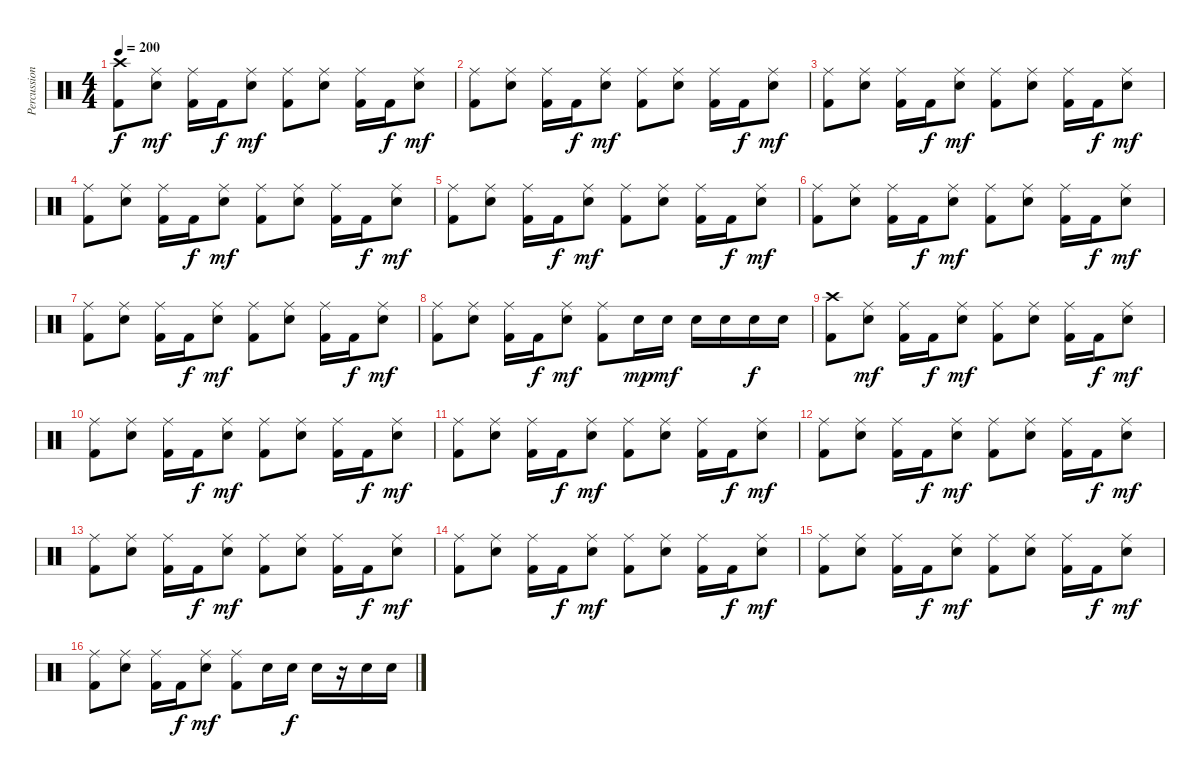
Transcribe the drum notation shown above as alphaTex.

\track ("Percussions" "Percussion") {instrument percussion}
\staff {score}
\articulation defaults
\ts (4 4)
\tempo 200
\clef neutral
\ks c
("Crash high (hit)" "Kick (hit) 2").8{dy f} ("Ride (middle)" "Snare (hit) 2").8{dy mf} ("Ride (middle)" "Kick (hit) 2").16 "Kick (hit) 2".16{dy f} ("Ride (middle)" "Snare (hit) 2").8{dy mf} ("Ride (middle)" "Kick (hit) 2").8 ("Ride (middle)" "Snare (hit) 2").8 ("Ride (middle)" "Kick (hit) 2").16 "Kick (hit) 2".16{dy f} ("Ride (middle)" "Snare (hit) 2").8{dy mf} |
("Ride (middle)" "Kick (hit) 2").8 ("Ride (middle)" "Snare (hit) 2").8 ("Ride (middle)" "Kick (hit) 2").16 "Kick (hit) 2".16{dy f} ("Ride (middle)" "Snare (hit) 2").8{dy mf} ("Ride (middle)" "Kick (hit) 2").8 ("Ride (middle)" "Snare (hit) 2").8 ("Ride (middle)" "Kick (hit) 2").16 "Kick (hit) 2".16{dy f} ("Ride (middle)" "Snare (hit) 2").8{dy mf} |
("Ride (middle)" "Kick (hit) 2").8 ("Ride (middle)" "Snare (hit) 2").8 ("Ride (middle)" "Kick (hit) 2").16 "Kick (hit) 2".16{dy f} ("Ride (middle)" "Snare (hit) 2").8{dy mf} ("Ride (middle)" "Kick (hit) 2").8 ("Ride (middle)" "Snare (hit) 2").8 ("Ride (middle)" "Kick (hit) 2").16 "Kick (hit) 2".16{dy f} ("Ride (middle)" "Snare (hit) 2").8{dy mf} |
("Ride (middle)" "Kick (hit) 2").8 ("Ride (middle)" "Snare (hit) 2").8 ("Ride (middle)" "Kick (hit) 2").16 "Kick (hit) 2".16{dy f} ("Ride (middle)" "Snare (hit) 2").8{dy mf} ("Ride (middle)" "Kick (hit) 2").8 ("Ride (middle)" "Snare (hit) 2").8 ("Ride (middle)" "Kick (hit) 2").16 "Kick (hit) 2".16{dy f} ("Ride (middle)" "Snare (hit) 2").8{dy mf} |
("Ride (middle)" "Kick (hit) 2").8 ("Ride (middle)" "Snare (hit) 2").8 ("Ride (middle)" "Kick (hit) 2").16 "Kick (hit) 2".16{dy f} ("Ride (middle)" "Snare (hit) 2").8{dy mf} ("Ride (middle)" "Kick (hit) 2").8 ("Ride (middle)" "Snare (hit) 2").8 ("Ride (middle)" "Kick (hit) 2").16 "Kick (hit) 2".16{dy f} ("Ride (middle)" "Snare (hit) 2").8{dy mf} |
("Ride (middle)" "Kick (hit) 2").8 ("Ride (middle)" "Snare (hit) 2").8 ("Ride (middle)" "Kick (hit) 2").16 "Kick (hit) 2".16{dy f} ("Ride (middle)" "Snare (hit) 2").8{dy mf} ("Ride (middle)" "Kick (hit) 2").8 ("Ride (middle)" "Snare (hit) 2").8 ("Ride (middle)" "Kick (hit) 2").16 "Kick (hit) 2".16{dy f} ("Ride (middle)" "Snare (hit) 2").8{dy mf} |
("Ride (middle)" "Kick (hit) 2").8 ("Ride (middle)" "Snare (hit) 2").8 ("Ride (middle)" "Kick (hit) 2").16 "Kick (hit) 2".16{dy f} ("Ride (middle)" "Snare (hit) 2").8{dy mf} ("Ride (middle)" "Kick (hit) 2").8 ("Ride (middle)" "Snare (hit) 2").8 ("Ride (middle)" "Kick (hit) 2").16 "Kick (hit) 2".16{dy f} ("Ride (middle)" "Snare (hit) 2").8{dy mf} |
("Ride (middle)" "Kick (hit) 2").8 ("Ride (middle)" "Snare (hit) 2").8 ("Ride (middle)" "Kick (hit) 2").16 "Kick (hit) 2".16{dy f} ("Ride (middle)" "Snare (hit) 2").8{dy mf} ("Ride (middle)" "Kick (hit) 2").8 "Snare (hit) 2".16{dy mp} "Snare (hit) 2".16{dy mf} "Snare (hit) 2".16 "Snare (hit) 2".16 "Snare (hit) 2".16{dy f} "Snare (hit) 2".16 |
("Crash high (hit)" "Kick (hit) 2").8 ("Ride (middle)" "Snare (hit) 2").8{dy mf} ("Ride (middle)" "Kick (hit) 2").16 "Kick (hit) 2".16{dy f} ("Ride (middle)" "Snare (hit) 2").8{dy mf} ("Ride (middle)" "Kick (hit) 2").8 ("Ride (middle)" "Snare (hit) 2").8 ("Ride (middle)" "Kick (hit) 2").16 "Kick (hit) 2".16{dy f} ("Ride (middle)" "Snare (hit) 2").8{dy mf} |
("Ride (middle)" "Kick (hit) 2").8 ("Ride (middle)" "Snare (hit) 2").8 ("Ride (middle)" "Kick (hit) 2").16 "Kick (hit) 2".16{dy f} ("Ride (middle)" "Snare (hit) 2").8{dy mf} ("Ride (middle)" "Kick (hit) 2").8 ("Ride (middle)" "Snare (hit) 2").8 ("Ride (middle)" "Kick (hit) 2").16 "Kick (hit) 2".16{dy f} ("Ride (middle)" "Snare (hit) 2").8{dy mf} |
("Ride (middle)" "Kick (hit) 2").8 ("Ride (middle)" "Snare (hit) 2").8 ("Ride (middle)" "Kick (hit) 2").16 "Kick (hit) 2".16{dy f} ("Ride (middle)" "Snare (hit) 2").8{dy mf} ("Ride (middle)" "Kick (hit) 2").8 ("Ride (middle)" "Snare (hit) 2").8 ("Ride (middle)" "Kick (hit) 2").16 "Kick (hit) 2".16{dy f} ("Ride (middle)" "Snare (hit) 2").8{dy mf} |
("Ride (middle)" "Kick (hit) 2").8 ("Ride (middle)" "Snare (hit) 2").8 ("Ride (middle)" "Kick (hit) 2").16 "Kick (hit) 2".16{dy f} ("Ride (middle)" "Snare (hit) 2").8{dy mf} ("Ride (middle)" "Kick (hit) 2").8 ("Ride (middle)" "Snare (hit) 2").8 ("Ride (middle)" "Kick (hit) 2").16 "Kick (hit) 2".16{dy f} ("Ride (middle)" "Snare (hit) 2").8{dy mf} |
("Ride (middle)" "Kick (hit) 2").8 ("Ride (middle)" "Snare (hit) 2").8 ("Ride (middle)" "Kick (hit) 2").16 "Kick (hit) 2".16{dy f} ("Ride (middle)" "Snare (hit) 2").8{dy mf} ("Ride (middle)" "Kick (hit) 2").8 ("Ride (middle)" "Snare (hit) 2").8 ("Ride (middle)" "Kick (hit) 2").16 "Kick (hit) 2".16{dy f} ("Ride (middle)" "Snare (hit) 2").8{dy mf} |
("Ride (middle)" "Kick (hit) 2").8 ("Ride (middle)" "Snare (hit) 2").8 ("Ride (middle)" "Kick (hit) 2").16 "Kick (hit) 2".16{dy f} ("Ride (middle)" "Snare (hit) 2").8{dy mf} ("Ride (middle)" "Kick (hit) 2").8 ("Ride (middle)" "Snare (hit) 2").8 ("Ride (middle)" "Kick (hit) 2").16 "Kick (hit) 2".16{dy f} ("Ride (middle)" "Snare (hit) 2").8{dy mf} |
("Ride (middle)" "Kick (hit) 2").8 ("Ride (middle)" "Snare (hit) 2").8 ("Ride (middle)" "Kick (hit) 2").16 "Kick (hit) 2".16{dy f} ("Ride (middle)" "Snare (hit) 2").8{dy mf} ("Ride (middle)" "Kick (hit) 2").8 ("Ride (middle)" "Snare (hit) 2").8 ("Ride (middle)" "Kick (hit) 2").16 "Kick (hit) 2".16{dy f} ("Ride (middle)" "Snare (hit) 2").8{dy mf} |
("Ride (middle)" "Kick (hit) 2").8 ("Ride (middle)" "Snare (hit) 2").8 ("Ride (middle)" "Kick (hit) 2").16 "Kick (hit) 2".16{dy f} ("Ride (middle)" "Snare (hit) 2").8{dy mf} ("Ride (middle)" "Kick (hit) 2").8 "Snare (hit) 2".16 "Snare (hit) 2".16{dy f} "Snare (hit) 2".16 r.16 "Snare (hit) 2".16 "Snare (hit) 2".16
